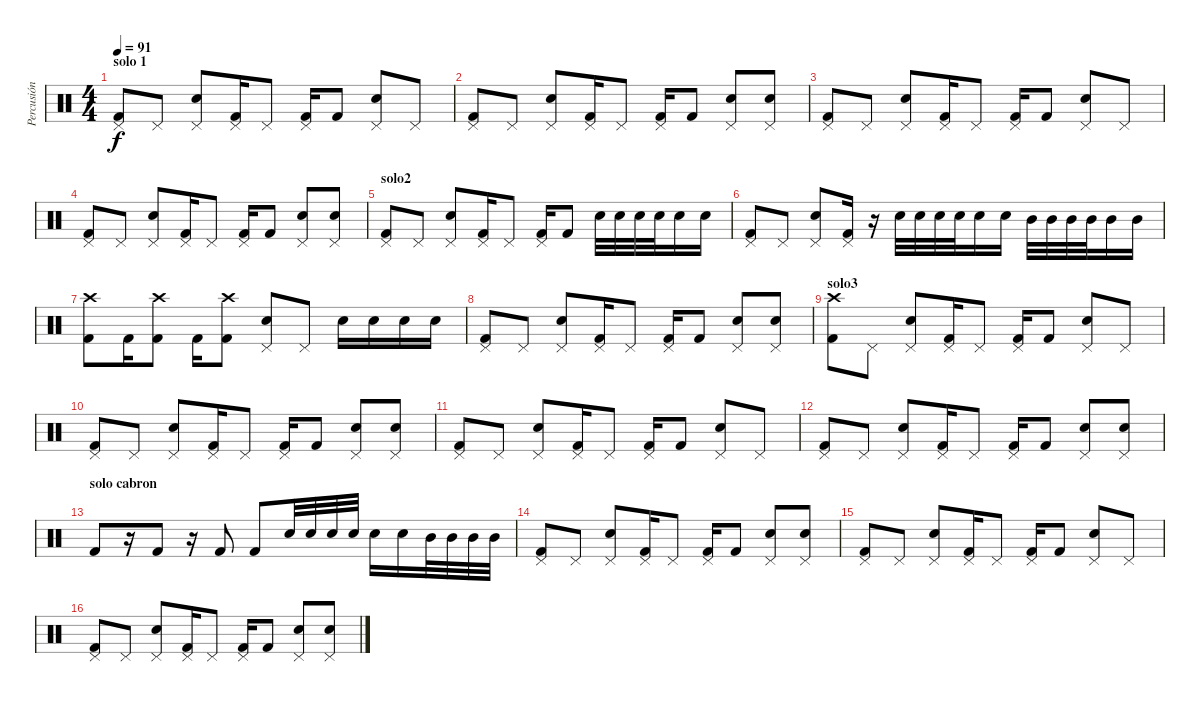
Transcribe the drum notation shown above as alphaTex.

\track ("Percusión" "Percusión") {instrument percussion}
\staff {score}
\articulation defaults
\ts (4 4)
\section ("" "solo 1")
\tempo 91
\clef neutral
\ks c
("Pedal Hi-Hat (hit)" "Kick (hit) 2").8{dy f} "Pedal Hi-Hat (hit)".8 ("Pedal Hi-Hat (hit)" "Electric Snare (hit)").8 ("Pedal Hi-Hat (hit)" "Kick (hit) 2").16 "Pedal Hi-Hat (hit)".8 ("Pedal Hi-Hat (hit)" "Kick (hit) 2").16 "Kick (hit) 2".8 ("Pedal Hi-Hat (hit)" "Electric Snare (hit)").8 "Pedal Hi-Hat (hit)".8 |
("Pedal Hi-Hat (hit)" "Kick (hit) 2").8 "Pedal Hi-Hat (hit)".8 ("Pedal Hi-Hat (hit)" "Electric Snare (hit)").8 ("Pedal Hi-Hat (hit)" "Kick (hit) 2").16 "Pedal Hi-Hat (hit)".8 ("Pedal Hi-Hat (hit)" "Kick (hit) 2").16 "Kick (hit) 2".8 ("Pedal Hi-Hat (hit)" "Electric Snare (hit)").8 ("Pedal Hi-Hat (hit)" "Electric Snare (hit)").8 |
("Pedal Hi-Hat (hit)" "Kick (hit) 2").8 "Pedal Hi-Hat (hit)".8 ("Pedal Hi-Hat (hit)" "Electric Snare (hit)").8 ("Pedal Hi-Hat (hit)" "Kick (hit) 2").16 "Pedal Hi-Hat (hit)".8 ("Pedal Hi-Hat (hit)" "Kick (hit) 2").16 "Kick (hit) 2".8 ("Pedal Hi-Hat (hit)" "Electric Snare (hit)").8 "Pedal Hi-Hat (hit)".8 |
("Pedal Hi-Hat (hit)" "Kick (hit) 2").8 "Pedal Hi-Hat (hit)".8 ("Pedal Hi-Hat (hit)" "Electric Snare (hit)").8 ("Pedal Hi-Hat (hit)" "Kick (hit) 2").16 "Pedal Hi-Hat (hit)".8 ("Pedal Hi-Hat (hit)" "Kick (hit) 2").16 "Kick (hit) 2".8 ("Pedal Hi-Hat (hit)" "Electric Snare (hit)").8 ("Pedal Hi-Hat (hit)" "Electric Snare (hit)").8 |
\section ("" "solo2")
("Pedal Hi-Hat (hit)" "Kick (hit) 2").8 "Pedal Hi-Hat (hit)".8 ("Pedal Hi-Hat (hit)" "Electric Snare (hit)").8 ("Pedal Hi-Hat (hit)" "Kick (hit) 2").16 "Pedal Hi-Hat (hit)".8 ("Pedal Hi-Hat (hit)" "Kick (hit) 2").16 "Kick (hit) 2".8 "Electric Snare (hit)".32 "Electric Snare (hit)".32 "Electric Snare (hit)".32 "Electric Snare (hit)".32 "Electric Snare (hit)".16 "Electric Snare (hit)".16 |
("Pedal Hi-Hat (hit)" "Kick (hit) 2").8 "Pedal Hi-Hat (hit)".8 ("Pedal Hi-Hat (hit)" "Electric Snare (hit)").8 ("Pedal Hi-Hat (hit)" "Kick (hit) 2").16 r.16 "Electric Snare (hit)".32 "Electric Snare (hit)".32 "Electric Snare (hit)".32 "Electric Snare (hit)".32 "Electric Snare (hit)".16 "Electric Snare (hit)".16 "Mid Tom (hit)".32 "Mid Tom (hit)".32 "Mid Tom (hit)".32 "Mid Tom (hit)".32 "Mid Tom (hit)".16 "Mid Tom (hit)".16 |
("Crash high (hit)" "Kick (hit) 2").8 "Kick (hit) 2".16 ("Crash high (hit)" "Kick (hit) 2").8 "Kick (hit) 2".16 ("Crash high (hit)" "Kick (hit) 2").8 ("Pedal Hi-Hat (hit)" "Electric Snare (hit)").8 "Pedal Hi-Hat (hit)".8 "Electric Snare (hit)".16 "Electric Snare (hit)".16 "Electric Snare (hit)".16 "Electric Snare (hit)".16 |
("Pedal Hi-Hat (hit)" "Kick (hit) 2").8 "Pedal Hi-Hat (hit)".8 ("Pedal Hi-Hat (hit)" "Electric Snare (hit)").8 ("Pedal Hi-Hat (hit)" "Kick (hit) 2").16 "Pedal Hi-Hat (hit)".8 ("Pedal Hi-Hat (hit)" "Kick (hit) 2").16 "Kick (hit) 2".8 ("Pedal Hi-Hat (hit)" "Electric Snare (hit)").8 ("Pedal Hi-Hat (hit)" "Electric Snare (hit)").8 |
\section ("" "solo3")
("Crash high (hit)" "Kick (hit) 2").8 "Pedal Hi-Hat (hit)".8 ("Pedal Hi-Hat (hit)" "Electric Snare (hit)").8 ("Pedal Hi-Hat (hit)" "Kick (hit) 2").16 "Pedal Hi-Hat (hit)".8 ("Pedal Hi-Hat (hit)" "Kick (hit) 2").16 "Kick (hit) 2".8 ("Pedal Hi-Hat (hit)" "Electric Snare (hit)").8 "Pedal Hi-Hat (hit)".8 |
("Pedal Hi-Hat (hit)" "Kick (hit) 2").8 "Pedal Hi-Hat (hit)".8 ("Pedal Hi-Hat (hit)" "Electric Snare (hit)").8 ("Pedal Hi-Hat (hit)" "Kick (hit) 2").16 "Pedal Hi-Hat (hit)".8 ("Pedal Hi-Hat (hit)" "Kick (hit) 2").16 "Kick (hit) 2".8 ("Pedal Hi-Hat (hit)" "Electric Snare (hit)").8 ("Pedal Hi-Hat (hit)" "Electric Snare (hit)").8 |
("Pedal Hi-Hat (hit)" "Kick (hit) 2").8 "Pedal Hi-Hat (hit)".8 ("Pedal Hi-Hat (hit)" "Electric Snare (hit)").8 ("Pedal Hi-Hat (hit)" "Kick (hit) 2").16 "Pedal Hi-Hat (hit)".8 ("Pedal Hi-Hat (hit)" "Kick (hit) 2").16 "Kick (hit) 2".8 ("Pedal Hi-Hat (hit)" "Electric Snare (hit)").8 "Pedal Hi-Hat (hit)".8 |
("Pedal Hi-Hat (hit)" "Kick (hit) 2").8 "Pedal Hi-Hat (hit)".8 ("Pedal Hi-Hat (hit)" "Electric Snare (hit)").8 ("Pedal Hi-Hat (hit)" "Kick (hit) 2").16 "Pedal Hi-Hat (hit)".8 ("Pedal Hi-Hat (hit)" "Kick (hit) 2").16 "Kick (hit) 2".8 ("Pedal Hi-Hat (hit)" "Electric Snare (hit)").8 ("Pedal Hi-Hat (hit)" "Electric Snare (hit)").8 |
\section ("" "solo cabron")
"Kick (hit) 2".8 r.16 "Kick (hit) 2".8 r.16 "Kick (hit) 2".8 "Kick (hit) 2".8 "Electric Snare (hit)".32 "Electric Snare (hit)".32 "Electric Snare (hit)".32 "Electric Snare (hit)".32 "Electric Snare (hit)".16 "Electric Snare (hit)".16 "Mid Tom (hit)".32 "Mid Tom (hit)".32 "Mid Tom (hit)".32 "Mid Tom (hit)".32 |
("Pedal Hi-Hat (hit)" "Kick (hit) 2").8 "Pedal Hi-Hat (hit)".8 ("Pedal Hi-Hat (hit)" "Electric Snare (hit)").8 ("Pedal Hi-Hat (hit)" "Kick (hit) 2").16 "Pedal Hi-Hat (hit)".8 ("Pedal Hi-Hat (hit)" "Kick (hit) 2").16 "Kick (hit) 2".8 ("Pedal Hi-Hat (hit)" "Electric Snare (hit)").8 ("Pedal Hi-Hat (hit)" "Electric Snare (hit)").8 |
("Pedal Hi-Hat (hit)" "Kick (hit) 2").8 "Pedal Hi-Hat (hit)".8 ("Pedal Hi-Hat (hit)" "Electric Snare (hit)").8 ("Pedal Hi-Hat (hit)" "Kick (hit) 2").16 "Pedal Hi-Hat (hit)".8 ("Pedal Hi-Hat (hit)" "Kick (hit) 2").16 "Kick (hit) 2".8 ("Pedal Hi-Hat (hit)" "Electric Snare (hit)").8 "Pedal Hi-Hat (hit)".8 |
("Pedal Hi-Hat (hit)" "Kick (hit) 2").8 "Pedal Hi-Hat (hit)".8 ("Pedal Hi-Hat (hit)" "Electric Snare (hit)").8 ("Pedal Hi-Hat (hit)" "Kick (hit) 2").16 "Pedal Hi-Hat (hit)".8 ("Pedal Hi-Hat (hit)" "Kick (hit) 2").16 "Kick (hit) 2".8 ("Pedal Hi-Hat (hit)" "Electric Snare (hit)").8 ("Pedal Hi-Hat (hit)" "Electric Snare (hit)").8
